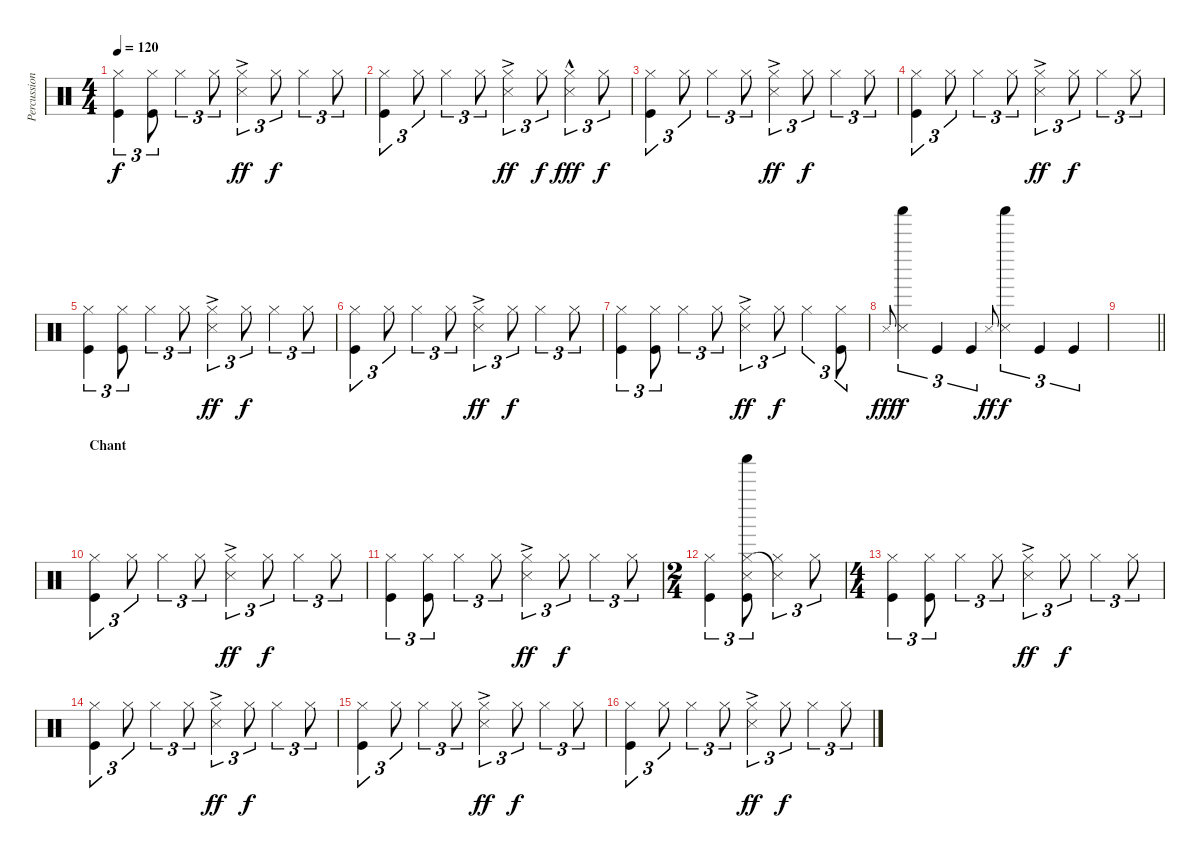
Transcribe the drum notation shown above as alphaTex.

\track ("Percussions" "Percussion") {instrument percussion bank 1}
\staff {score}
\articulation defaults
\ts (4 4)
\tempo 120
\clef neutral
\ks c
("Hi-Hat (closed)" "Kick (hit)").4{tu (3 2) dy f} ("Kick (hit)" "Hi-Hat (closed)").8{tu (3 2)} "Hi-Hat (closed)".4{tu (3 2)} "Hi-Hat (closed)".8{tu (3 2)} ("Snare (side stick) 3"{ac} "Hi-Hat (closed)").4{tu (3 2) dy ff} "Hi-Hat (closed)".8{tu (3 2) dy f} "Hi-Hat (closed)".4{tu (3 2)} "Hi-Hat (closed)".8{tu (3 2)} |
("Kick (hit)" "Hi-Hat (closed)").4{tu (3 2)} "Hi-Hat (closed)".8{tu (3 2)} "Hi-Hat (closed)".4{tu (3 2)} "Hi-Hat (closed)".8{tu (3 2)} ("Snare (side stick) 3"{ac} "Hi-Hat (closed)").4{tu (3 2) dy ff} "Hi-Hat (closed)".8{tu (3 2) dy f} ("Hi-Hat (closed)" "Snare (side stick) 3"{hac}).4{tu (3 2) dy fff} "Hi-Hat (closed)".8{tu (3 2) dy f} |
("Hi-Hat (closed)" "Kick (hit)").4{tu (3 2)} "Hi-Hat (closed)".8{tu (3 2)} "Hi-Hat (closed)".4{tu (3 2)} "Hi-Hat (closed)".8{tu (3 2)} ("Snare (side stick) 3"{ac} "Hi-Hat (closed)").4{tu (3 2) dy ff} "Hi-Hat (closed)".8{tu (3 2) dy f} "Hi-Hat (closed)".4{tu (3 2)} "Hi-Hat (closed)".8{tu (3 2)} |
("Kick (hit)" "Hi-Hat (closed)").4{tu (3 2)} "Hi-Hat (closed)".8{tu (3 2)} "Hi-Hat (closed)".4{tu (3 2)} "Hi-Hat (closed)".8{tu (3 2)} ("Snare (side stick) 3"{ac} "Hi-Hat (closed)").4{tu (3 2) dy ff} "Hi-Hat (closed)".8{tu (3 2) dy f} "Hi-Hat (closed)".4{tu (3 2)} "Hi-Hat (closed)".8{tu (3 2)} |
("Hi-Hat (closed)" "Kick (hit)").4{tu (3 2)} ("Kick (hit)" "Hi-Hat (closed)").8{tu (3 2)} "Hi-Hat (closed)".4{tu (3 2)} "Hi-Hat (closed)".8{tu (3 2)} ("Snare (side stick) 3"{ac} "Hi-Hat (closed)").4{tu (3 2) dy ff} "Hi-Hat (closed)".8{tu (3 2) dy f} "Hi-Hat (closed)".4{tu (3 2)} "Hi-Hat (closed)".8{tu (3 2)} |
("Kick (hit)" "Hi-Hat (closed)").4{tu (3 2)} "Hi-Hat (closed)".8{tu (3 2)} "Hi-Hat (closed)".4{tu (3 2)} "Hi-Hat (closed)".8{tu (3 2)} ("Snare (side stick) 3"{ac} "Hi-Hat (closed)").4{tu (3 2) dy ff} "Hi-Hat (closed)".8{tu (3 2) dy f} "Hi-Hat (closed)".4{tu (3 2)} "Hi-Hat (closed)".8{tu (3 2)} |
("Hi-Hat (closed)" "Kick (hit)").4{tu (3 2)} ("Kick (hit)" "Hi-Hat (closed)").8{tu (3 2)} "Hi-Hat (closed)".4{tu (3 2)} "Hi-Hat (closed)".8{tu (3 2)} ("Snare (side stick) 3"{ac} "Hi-Hat (closed)").4{tu (3 2) dy ff} "Hi-Hat (closed)".8{tu (3 2) dy f} "Hi-Hat (closed)".4{tu (3 2)} ("Hi-Hat (closed)" "Kick (hit)").8{tu (3 2)} |
"Snare (side stick) 3".8{gr onbeat dy fff} ("Snare (side stick) 3" "Shaker (hit)").4{tu (3 2) dy f} "Kick (hit)".4{tu (3 2)} "Kick (hit)".4{tu (3 2)} "Snare (side stick) 3".8{gr onbeat dy ff} ("Snare (side stick) 3" "Shaker (hit)").4{tu (3 2) dy f} "Kick (hit)".4{tu (3 2)} "Kick (hit)".4{tu (3 2)} |
\barLineRight lightlight
|
\section ("" "Chant")
("Kick (hit)" "Hi-Hat (closed)").4{tu (3 2)} "Hi-Hat (closed)".8{tu (3 2)} "Hi-Hat (closed)".4{tu (3 2)} "Hi-Hat (closed)".8{tu (3 2)} ("Snare (side stick) 3"{ac} "Hi-Hat (closed)").4{tu (3 2) dy ff} "Hi-Hat (closed)".8{tu (3 2) dy f} "Hi-Hat (closed)".4{tu (3 2)} "Hi-Hat (closed)".8{tu (3 2)} |
("Hi-Hat (closed)" "Kick (hit)").4{tu (3 2)} ("Kick (hit)" "Hi-Hat (closed)").8{tu (3 2)} "Hi-Hat (closed)".4{tu (3 2)} "Hi-Hat (closed)".8{tu (3 2)} ("Snare (side stick) 3"{ac} "Hi-Hat (closed)").4{tu (3 2) dy ff} "Hi-Hat (closed)".8{tu (3 2) dy f} "Hi-Hat (closed)".4{tu (3 2)} "Hi-Hat (closed)".8{tu (3 2)} |
\ts (2 4)
("Hi-Hat (closed)" "Kick (hit)").4{tu (3 2)} ("Kick (hit)" "Hi-Hat (closed)" "Snare (side stick) 3" "Shaker (hit)").8{tu (3 2)} ("Hi-Hat (closed)" "Snare (side stick) 3"{t}).4{tu (3 2)} "Hi-Hat (closed)".8{tu (3 2)} |
\ts (4 4)
("Hi-Hat (closed)" "Kick (hit)").4{tu (3 2)} ("Kick (hit)" "Hi-Hat (closed)").8{tu (3 2)} "Hi-Hat (closed)".4{tu (3 2)} "Hi-Hat (closed)".8{tu (3 2)} ("Snare (side stick) 3"{ac} "Hi-Hat (closed)").4{tu (3 2) dy ff} "Hi-Hat (closed)".8{tu (3 2) dy f} "Hi-Hat (closed)".4{tu (3 2)} "Hi-Hat (closed)".8{tu (3 2)} |
("Kick (hit)" "Hi-Hat (closed)").4{tu (3 2)} "Hi-Hat (closed)".8{tu (3 2)} "Hi-Hat (closed)".4{tu (3 2)} "Hi-Hat (closed)".8{tu (3 2)} ("Snare (side stick) 3"{ac} "Hi-Hat (closed)").4{tu (3 2) dy ff} "Hi-Hat (closed)".8{tu (3 2) dy f} "Hi-Hat (closed)".4{tu (3 2)} "Hi-Hat (closed)".8{tu (3 2)} |
("Kick (hit)" "Hi-Hat (closed)").4{tu (3 2)} "Hi-Hat (closed)".8{tu (3 2)} "Hi-Hat (closed)".4{tu (3 2)} "Hi-Hat (closed)".8{tu (3 2)} ("Snare (side stick) 3"{ac} "Hi-Hat (closed)").4{tu (3 2) dy ff} "Hi-Hat (closed)".8{tu (3 2) dy f} "Hi-Hat (closed)".4{tu (3 2)} "Hi-Hat (closed)".8{tu (3 2)} |
("Kick (hit)" "Hi-Hat (closed)").4{tu (3 2)} "Hi-Hat (closed)".8{tu (3 2)} "Hi-Hat (closed)".4{tu (3 2)} "Hi-Hat (closed)".8{tu (3 2)} ("Snare (side stick) 3"{ac} "Hi-Hat (closed)").4{tu (3 2) dy ff} "Hi-Hat (closed)".8{tu (3 2) dy f} "Hi-Hat (closed)".4{tu (3 2)} "Hi-Hat (closed)".8{tu (3 2)}
